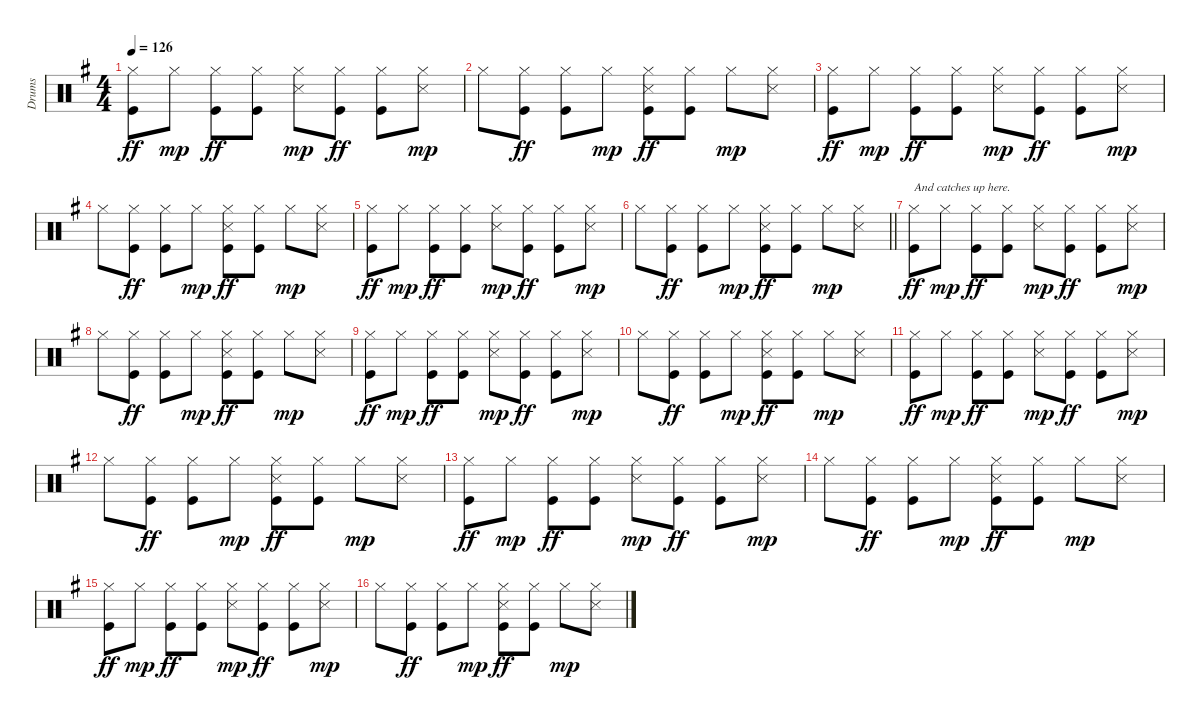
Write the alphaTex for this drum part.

\track ("Drums" "Drums") {instrument percussion}
\staff {score}
\articulation defaults
\ts (4 4)
\tempo 126
\clef neutral
\ks eminor
("Hi-Hat (closed)" "Kick (hit)").8{dy ff} "Hi-Hat (closed)".8{dy mp} ("Hi-Hat (closed)" "Kick (hit)").8{dy ff} ("Hi-Hat (closed)" "Kick (hit)").8 ("Hi-Hat (closed)" "Snare (side stick) 3").8{dy mp} ("Hi-Hat (closed)" "Kick (hit)").8{dy ff} ("Hi-Hat (closed)" "Kick (hit)").8 ("Hi-Hat (closed)" "Snare (side stick) 3").8{dy mp} |
"Hi-Hat (closed)".8 ("Hi-Hat (closed)" "Kick (hit)").8{dy ff} ("Hi-Hat (closed)" "Kick (hit)").8 "Hi-Hat (closed)".8{dy mp} ("Hi-Hat (closed)" "Snare (side stick) 3" "Kick (hit)").8{dy ff} ("Hi-Hat (closed)" "Kick (hit)").8 "Hi-Hat (closed)".8{dy mp} ("Hi-Hat (closed)" "Snare (side stick) 3").8 |
("Hi-Hat (closed)" "Kick (hit)").8{dy ff} "Hi-Hat (closed)".8{dy mp} ("Hi-Hat (closed)" "Kick (hit)").8{dy ff} ("Hi-Hat (closed)" "Kick (hit)").8 ("Hi-Hat (closed)" "Snare (side stick) 3").8{dy mp} ("Hi-Hat (closed)" "Kick (hit)").8{dy ff} ("Hi-Hat (closed)" "Kick (hit)").8 ("Hi-Hat (closed)" "Snare (side stick) 3").8{dy mp} |
"Hi-Hat (closed)".8 ("Hi-Hat (closed)" "Kick (hit)").8{dy ff} ("Hi-Hat (closed)" "Kick (hit)").8 "Hi-Hat (closed)".8{dy mp} ("Hi-Hat (closed)" "Snare (side stick) 3" "Kick (hit)").8{dy ff} ("Hi-Hat (closed)" "Kick (hit)").8 "Hi-Hat (closed)".8{dy mp} ("Hi-Hat (closed)" "Snare (side stick) 3").8 |
("Hi-Hat (closed)" "Kick (hit)").8{dy ff} "Hi-Hat (closed)".8{dy mp} ("Hi-Hat (closed)" "Kick (hit)").8{dy ff} ("Hi-Hat (closed)" "Kick (hit)").8 ("Hi-Hat (closed)" "Snare (side stick) 3").8{dy mp} ("Hi-Hat (closed)" "Kick (hit)").8{dy ff} ("Hi-Hat (closed)" "Kick (hit)").8 ("Hi-Hat (closed)" "Snare (side stick) 3").8{dy mp} |
\barLineRight lightlight "Hi-Hat (closed)".8
("Hi-Hat (closed)" "Kick (hit)").8{dy ff} ("Hi-Hat (closed)" "Kick (hit)").8 "Hi-Hat (closed)".8{dy mp} ("Hi-Hat (closed)" "Snare (side stick) 3" "Kick (hit)").8{dy ff} ("Hi-Hat (closed)" "Kick (hit)").8 "Hi-Hat (closed)".8{dy mp} ("Hi-Hat (closed)" "Snare (side stick) 3").8 |
("Hi-Hat (closed)" "Kick (hit)").8{txt "And catches up here." dy ff} "Hi-Hat (closed)".8{dy mp} ("Hi-Hat (closed)" "Kick (hit)").8{dy ff} ("Hi-Hat (closed)" "Kick (hit)").8 ("Hi-Hat (closed)" "Snare (side stick) 3").8{dy mp} ("Hi-Hat (closed)" "Kick (hit)").8{dy ff} ("Hi-Hat (closed)" "Kick (hit)").8 ("Hi-Hat (closed)" "Snare (side stick) 3").8{dy mp} |
"Hi-Hat (closed)".8 ("Hi-Hat (closed)" "Kick (hit)").8{dy ff} ("Hi-Hat (closed)" "Kick (hit)").8 "Hi-Hat (closed)".8{dy mp} ("Hi-Hat (closed)" "Snare (side stick) 3" "Kick (hit)").8{dy ff} ("Hi-Hat (closed)" "Kick (hit)").8 "Hi-Hat (closed)".8{dy mp} ("Hi-Hat (closed)" "Snare (side stick) 3").8 |
("Hi-Hat (closed)" "Kick (hit)").8{dy ff} "Hi-Hat (closed)".8{dy mp} ("Hi-Hat (closed)" "Kick (hit)").8{dy ff} ("Hi-Hat (closed)" "Kick (hit)").8 ("Hi-Hat (closed)" "Snare (side stick) 3").8{dy mp} ("Hi-Hat (closed)" "Kick (hit)").8{dy ff} ("Hi-Hat (closed)" "Kick (hit)").8 ("Hi-Hat (closed)" "Snare (side stick) 3").8{dy mp} |
"Hi-Hat (closed)".8 ("Hi-Hat (closed)" "Kick (hit)").8{dy ff} ("Hi-Hat (closed)" "Kick (hit)").8 "Hi-Hat (closed)".8{dy mp} ("Hi-Hat (closed)" "Snare (side stick) 3" "Kick (hit)").8{dy ff} ("Hi-Hat (closed)" "Kick (hit)").8 "Hi-Hat (closed)".8{dy mp} ("Hi-Hat (closed)" "Snare (side stick) 3").8 |
("Hi-Hat (closed)" "Kick (hit)").8{dy ff} "Hi-Hat (closed)".8{dy mp} ("Hi-Hat (closed)" "Kick (hit)").8{dy ff} ("Hi-Hat (closed)" "Kick (hit)").8 ("Hi-Hat (closed)" "Snare (side stick) 3").8{dy mp} ("Hi-Hat (closed)" "Kick (hit)").8{dy ff} ("Hi-Hat (closed)" "Kick (hit)").8 ("Hi-Hat (closed)" "Snare (side stick) 3").8{dy mp} |
"Hi-Hat (closed)".8 ("Hi-Hat (closed)" "Kick (hit)").8{dy ff} ("Hi-Hat (closed)" "Kick (hit)").8 "Hi-Hat (closed)".8{dy mp} ("Hi-Hat (closed)" "Snare (side stick) 3" "Kick (hit)").8{dy ff} ("Hi-Hat (closed)" "Kick (hit)").8 "Hi-Hat (closed)".8{dy mp} ("Hi-Hat (closed)" "Snare (side stick) 3").8 |
("Hi-Hat (closed)" "Kick (hit)").8{dy ff} "Hi-Hat (closed)".8{dy mp} ("Hi-Hat (closed)" "Kick (hit)").8{dy ff} ("Hi-Hat (closed)" "Kick (hit)").8 ("Hi-Hat (closed)" "Snare (side stick) 3").8{dy mp} ("Hi-Hat (closed)" "Kick (hit)").8{dy ff} ("Hi-Hat (closed)" "Kick (hit)").8 ("Hi-Hat (closed)" "Snare (side stick) 3").8{dy mp} |
"Hi-Hat (closed)".8 ("Hi-Hat (closed)" "Kick (hit)").8{dy ff} ("Hi-Hat (closed)" "Kick (hit)").8 "Hi-Hat (closed)".8{dy mp} ("Hi-Hat (closed)" "Snare (side stick) 3" "Kick (hit)").8{dy ff} ("Hi-Hat (closed)" "Kick (hit)").8 "Hi-Hat (closed)".8{dy mp} ("Hi-Hat (closed)" "Snare (side stick) 3").8 |
("Hi-Hat (closed)" "Kick (hit)").8{dy ff} "Hi-Hat (closed)".8{dy mp} ("Hi-Hat (closed)" "Kick (hit)").8{dy ff} ("Hi-Hat (closed)" "Kick (hit)").8 ("Hi-Hat (closed)" "Snare (side stick) 3").8{dy mp} ("Hi-Hat (closed)" "Kick (hit)").8{dy ff} ("Hi-Hat (closed)" "Kick (hit)").8 ("Hi-Hat (closed)" "Snare (side stick) 3").8{dy mp} |
"Hi-Hat (closed)".8 ("Hi-Hat (closed)" "Kick (hit)").8{dy ff} ("Hi-Hat (closed)" "Kick (hit)").8 "Hi-Hat (closed)".8{dy mp} ("Hi-Hat (closed)" "Snare (side stick) 3" "Kick (hit)").8{dy ff} ("Hi-Hat (closed)" "Kick (hit)").8 "Hi-Hat (closed)".8{dy mp} ("Hi-Hat (closed)" "Snare (side stick) 3").8
